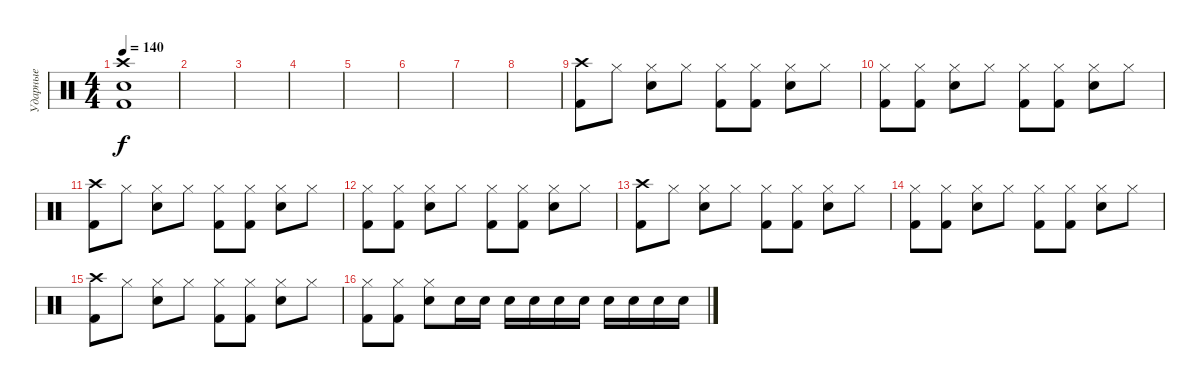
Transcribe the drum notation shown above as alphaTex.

\track ("Ударные" "Ударные") {instrument percussion}
\staff {score}
\articulation defaults
\ts (4 4)
\tempo 140
\clef neutral
\ks c
("Crash high (hit)" "Electric Snare (hit)" "Kick (hit) 2").1{dy f} |
|
|
|
|
|
|
|
("Crash high (hit)" "Kick (hit) 2").8 "Hi-Hat (closed)".8 ("Hi-Hat (closed)" "Electric Snare (hit)").8 "Hi-Hat (closed)".8 ("Hi-Hat (closed)" "Kick (hit) 2").8 ("Hi-Hat (closed)" "Kick (hit) 2").8 ("Hi-Hat (closed)" "Electric Snare (hit)").8 "Hi-Hat (closed)".8 |
("Hi-Hat (closed)" "Kick (hit) 2").8 ("Hi-Hat (closed)" "Kick (hit) 2").8 ("Hi-Hat (closed)" "Electric Snare (hit)").8 "Hi-Hat (closed)".8 ("Hi-Hat (closed)" "Kick (hit) 2").8 ("Hi-Hat (closed)" "Kick (hit) 2").8 ("Hi-Hat (closed)" "Electric Snare (hit)").8 "Hi-Hat (closed)".8 |
("Crash high (hit)" "Kick (hit) 2").8 "Hi-Hat (closed)".8 ("Hi-Hat (closed)" "Electric Snare (hit)").8 "Hi-Hat (closed)".8 ("Hi-Hat (closed)" "Kick (hit) 2").8 ("Hi-Hat (closed)" "Kick (hit) 2").8 ("Hi-Hat (closed)" "Electric Snare (hit)").8 "Hi-Hat (closed)".8 |
("Hi-Hat (closed)" "Kick (hit) 2").8 ("Hi-Hat (closed)" "Kick (hit) 2").8 ("Hi-Hat (closed)" "Electric Snare (hit)").8 "Hi-Hat (closed)".8 ("Hi-Hat (closed)" "Kick (hit) 2").8 ("Hi-Hat (closed)" "Kick (hit) 2").8 ("Hi-Hat (closed)" "Electric Snare (hit)").8 "Hi-Hat (closed)".8 |
("Crash high (hit)" "Kick (hit) 2").8 "Hi-Hat (closed)".8 ("Hi-Hat (closed)" "Electric Snare (hit)").8 "Hi-Hat (closed)".8 ("Hi-Hat (closed)" "Kick (hit) 2").8 ("Hi-Hat (closed)" "Kick (hit) 2").8 ("Hi-Hat (closed)" "Electric Snare (hit)").8 "Hi-Hat (closed)".8 |
("Hi-Hat (closed)" "Kick (hit) 2").8 ("Hi-Hat (closed)" "Kick (hit) 2").8 ("Hi-Hat (closed)" "Electric Snare (hit)").8 "Hi-Hat (closed)".8 ("Hi-Hat (closed)" "Kick (hit) 2").8 ("Hi-Hat (closed)" "Kick (hit) 2").8 ("Hi-Hat (closed)" "Electric Snare (hit)").8 "Hi-Hat (closed)".8 |
("Crash high (hit)" "Kick (hit) 2").8 "Hi-Hat (closed)".8 ("Hi-Hat (closed)" "Electric Snare (hit)").8 "Hi-Hat (closed)".8 ("Hi-Hat (closed)" "Kick (hit) 2").8 ("Hi-Hat (closed)" "Kick (hit) 2").8 ("Hi-Hat (closed)" "Electric Snare (hit)").8 "Hi-Hat (closed)".8 |
("Hi-Hat (closed)" "Kick (hit) 2").8 ("Hi-Hat (closed)" "Kick (hit) 2").8 ("Hi-Hat (closed)" "Electric Snare (hit)").8 "Electric Snare (hit)".16 "Electric Snare (hit)".16 "Electric Snare (hit)".16 "Electric Snare (hit)".16 "Electric Snare (hit)".16 "Electric Snare (hit)".16 "Electric Snare (hit)".16 "Electric Snare (hit)".16 "Electric Snare (hit)".16 "Electric Snare (hit)".16
